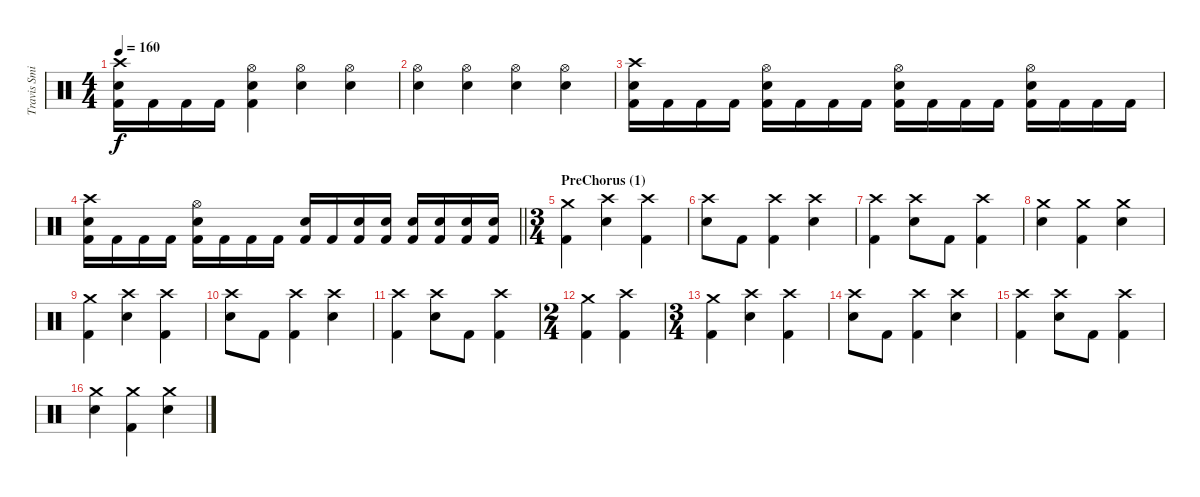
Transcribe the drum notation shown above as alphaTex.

\track ("Travis Smith" "Travis Smi") {instrument percussion}
\staff {score}
\articulation defaults
\ts (4 4)
\tempo 160
\clef neutral
\ks c
("Crash high (hit)" "Electric Snare (hit)" "Kick (hit) 2").16{dy f} "Kick (hit) 2".16 "Kick (hit) 2".16 "Kick (hit) 2".16 ("Hi-Hat (open)" "Electric Snare (hit)" "Kick (hit) 2").4 ("Hi-Hat (open)" "Electric Snare (hit)").4 ("Hi-Hat (open)" "Electric Snare (hit)").4 |
("Hi-Hat (open)" "Electric Snare (hit)").4 ("Hi-Hat (open)" "Electric Snare (hit)").4 ("Hi-Hat (open)" "Electric Snare (hit)").4 ("Hi-Hat (open)" "Electric Snare (hit)").4 |
("Crash high (hit)" "Electric Snare (hit)" "Kick (hit) 2").16 "Kick (hit) 2".16 "Kick (hit) 2".16 "Kick (hit) 2".16 ("Hi-Hat (open)" "Electric Snare (hit)" "Kick (hit) 2").16 "Kick (hit) 2".16 "Kick (hit) 2".16 "Kick (hit) 2".16 ("Hi-Hat (open)" "Electric Snare (hit)" "Kick (hit) 2").16 "Kick (hit) 2".16 "Kick (hit) 2".16 "Kick (hit) 2".16 ("Hi-Hat (open)" "Electric Snare (hit)" "Kick (hit) 2").16 "Kick (hit) 2".16 "Kick (hit) 2".16 "Kick (hit) 2".16 |
\barLineRight lightlight
("Crash high (hit)" "Electric Snare (hit)" "Kick (hit) 2").16 "Kick (hit) 2".16 "Kick (hit) 2".16 "Kick (hit) 2".16 ("Hi-Hat (open)" "Electric Snare (hit)" "Kick (hit) 2").16 "Kick (hit) 2".16 "Kick (hit) 2".16 "Kick (hit) 2".16 ("Electric Snare (hit)" "Kick (hit) 2").16 "Kick (hit) 2".16 ("Electric Snare (hit)" "Kick (hit) 2").16 ("Electric Snare (hit)" "Kick (hit) 2").16 ("Electric Snare (hit)" "Kick (hit) 2").16 ("Electric Snare (hit)" "Kick (hit) 2").16 ("Electric Snare (hit)" "Kick (hit) 2").16 ("Electric Snare (hit)" "Kick (hit) 2").16 |
\ts (3 4)
\section ("" "PreChorus (1)")
("Crash medium (hit)" "Kick (hit) 2").4 ("Crash high (hit)" "Electric Snare (hit)").4 ("Crash high (hit)" "Kick (hit) 2").4 |
("Crash high (hit)" "Electric Snare (hit)").8 "Kick (hit) 2".8 ("Crash high (hit)" "Kick (hit) 2").4 ("Crash high (hit)" "Electric Snare (hit)").4 |
("Crash high (hit)" "Kick (hit) 2").4 ("Crash high (hit)" "Electric Snare (hit)").8 "Kick (hit) 2".8 ("Crash high (hit)" "Kick (hit) 2").4 |
("Crash medium (hit)" "Electric Snare (hit)").4 ("Crash medium (hit)" "Kick (hit) 2").4 ("Crash medium (hit)" "Electric Snare (hit)").4 |
("Crash medium (hit)" "Kick (hit) 2").4 ("Crash high (hit)" "Electric Snare (hit)").4 ("Crash high (hit)" "Kick (hit) 2").4 |
("Crash high (hit)" "Electric Snare (hit)").8 "Kick (hit) 2".8 ("Crash high (hit)" "Kick (hit) 2").4 ("Crash high (hit)" "Electric Snare (hit)").4 |
("Crash high (hit)" "Kick (hit) 2").4 ("Crash high (hit)" "Electric Snare (hit)").8 "Kick (hit) 2".8 ("Crash high (hit)" "Kick (hit) 2").4 |
\ts (2 4)
("Crash medium (hit)" "Kick (hit) 2").4 ("Crash high (hit)" "Kick (hit) 2").4 |
\ts (3 4)
("Crash medium (hit)" "Kick (hit) 2").4 ("Crash high (hit)" "Electric Snare (hit)").4 ("Crash high (hit)" "Kick (hit) 2").4 |
("Crash high (hit)" "Electric Snare (hit)").8 "Kick (hit) 2".8 ("Crash high (hit)" "Kick (hit) 2").4 ("Crash high (hit)" "Electric Snare (hit)").4 |
("Crash high (hit)" "Kick (hit) 2").4 ("Crash high (hit)" "Electric Snare (hit)").8 "Kick (hit) 2".8 ("Crash high (hit)" "Kick (hit) 2").4 |
("Crash medium (hit)" "Electric Snare (hit)").4 ("Crash medium (hit)" "Kick (hit) 2").4 ("Crash medium (hit)" "Electric Snare (hit)").4
